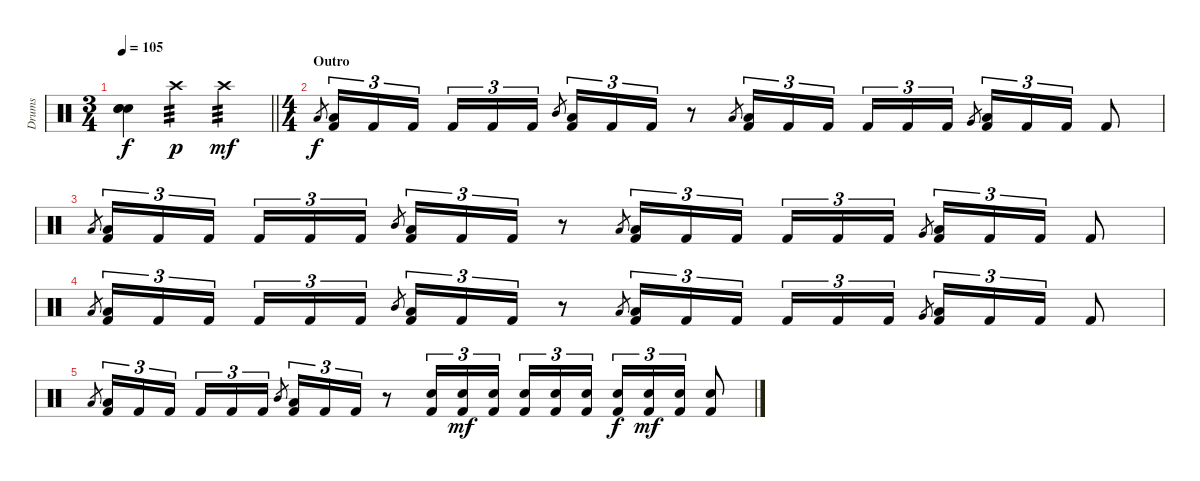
\track ("Drums" "Drums") {instrument percussion}
\staff {score}
\articulation defaults
\ts (3 4)
\tempo 105
\clef neutral
\barLineRight lightlight
\ks c
("Snare (hit)"{t} "Snare (hit)"{t} "Snare (hit)"{t}).4{dy f} "Crash high (hit)".4{tp 3 dy p} "Crash high (hit)".4{tp 3 dy mf} |
\ts (4 4)
\section ("" "Outro")
"Low Tom (hit)".8{gr dy f} ("Low Floor Tom (hit)" "Kick (hit) 2").16{tu (3 2)} "Kick (hit) 2".16{tu (3 2)} "Kick (hit) 2".16{tu (3 2) beam splitsecondary} "Kick (hit) 2".16{tu (3 2)} "Kick (hit) 2".16{tu (3 2)} "Kick (hit) 2".16{tu (3 2)} "Mid Tom (hit)".8{gr} ("Low Floor Tom (hit)" "Kick (hit) 2").16{tu (3 2)} "Kick (hit) 2".16{tu (3 2)} "Kick (hit) 2".16{tu (3 2)} r.8 "Low Tom (hit)".8{gr} ("Low Floor Tom (hit)" "Kick (hit) 2").16{tu (3 2)} "Kick (hit) 2".16{tu (3 2)} "Kick (hit) 2".16{tu (3 2) beam splitsecondary} "Kick (hit) 2".16{tu (3 2)} "Kick (hit) 2".16{tu (3 2)} "Kick (hit) 2".16{tu (3 2)} "Very Low Tom (hit)".8{gr} ("Low Floor Tom (hit)" "Kick (hit) 2").16{tu (3 2)} "Kick (hit) 2".16{tu (3 2)} "Kick (hit) 2".16{tu (3 2)} "Kick (hit) 2".8 |
"Low Tom (hit)".8{gr} ("Low Floor Tom (hit)" "Kick (hit) 2").16{tu (3 2)} "Kick (hit) 2".16{tu (3 2)} "Kick (hit) 2".16{tu (3 2) beam splitsecondary} "Kick (hit) 2".16{tu (3 2)} "Kick (hit) 2".16{tu (3 2)} "Kick (hit) 2".16{tu (3 2)} "Mid Tom (hit)".8{gr} ("Low Floor Tom (hit)" "Kick (hit) 2").16{tu (3 2)} "Kick (hit) 2".16{tu (3 2)} "Kick (hit) 2".16{tu (3 2)} r.8 "Low Tom (hit)".8{gr} ("Low Floor Tom (hit)" "Kick (hit) 2").16{tu (3 2)} "Kick (hit) 2".16{tu (3 2)} "Kick (hit) 2".16{tu (3 2) beam splitsecondary} "Kick (hit) 2".16{tu (3 2)} "Kick (hit) 2".16{tu (3 2)} "Kick (hit) 2".16{tu (3 2)} "Very Low Tom (hit)".8{gr} ("Low Floor Tom (hit)" "Kick (hit) 2").16{tu (3 2)} "Kick (hit) 2".16{tu (3 2)} "Kick (hit) 2".16{tu (3 2)} "Kick (hit) 2".8 |
"Low Tom (hit)".8{gr} ("Low Floor Tom (hit)" "Kick (hit) 2").16{tu (3 2)} "Kick (hit) 2".16{tu (3 2)} "Kick (hit) 2".16{tu (3 2) beam splitsecondary} "Kick (hit) 2".16{tu (3 2)} "Kick (hit) 2".16{tu (3 2)} "Kick (hit) 2".16{tu (3 2)} "Mid Tom (hit)".8{gr} ("Low Floor Tom (hit)" "Kick (hit) 2").16{tu (3 2)} "Kick (hit) 2".16{tu (3 2)} "Kick (hit) 2".16{tu (3 2)} r.8 "Low Tom (hit)".8{gr} ("Low Floor Tom (hit)" "Kick (hit) 2").16{tu (3 2)} "Kick (hit) 2".16{tu (3 2)} "Kick (hit) 2".16{tu (3 2) beam splitsecondary} "Kick (hit) 2".16{tu (3 2)} "Kick (hit) 2".16{tu (3 2)} "Kick (hit) 2".16{tu (3 2)} "Very Low Tom (hit)".8{gr} ("Low Floor Tom (hit)" "Kick (hit) 2").16{tu (3 2)} "Kick (hit) 2".16{tu (3 2)} "Kick (hit) 2".16{tu (3 2)} "Kick (hit) 2".8 |
"Low Tom (hit)".8{gr} ("Low Floor Tom (hit)" "Kick (hit) 2").16{tu (3 2)} "Kick (hit) 2".16{tu (3 2)} "Kick (hit) 2".16{tu (3 2) beam splitsecondary} "Kick (hit) 2".16{tu (3 2)} "Kick (hit) 2".16{tu (3 2)} "Kick (hit) 2".16{tu (3 2)} "Mid Tom (hit)".8{gr} ("Low Floor Tom (hit)" "Kick (hit) 2").16{tu (3 2)} "Kick (hit) 2".16{tu (3 2)} "Kick (hit) 2".16{tu (3 2)} r.8 ("Electric Snare (hit)" "Kick (hit) 2").16{tu (3 2)} ("Electric Snare (hit)" "Kick (hit) 2").16{tu (3 2) dy mf} ("Electric Snare (hit)" "Kick (hit) 2").16{tu (3 2) beam splitsecondary} ("Electric Snare (hit)" "Kick (hit) 2").16{tu (3 2)} ("Electric Snare (hit)" "Kick (hit) 2").16{tu (3 2)} ("Electric Snare (hit)" "Kick (hit) 2").16{tu (3 2)} ("Electric Snare (hit)" "Kick (hit) 2").16{tu (3 2) dy f} ("Electric Snare (hit)" "Kick (hit) 2").16{tu (3 2) dy mf} ("Electric Snare (hit)" "Kick (hit) 2").16{tu (3 2)} ("Electric Snare (hit)" "Kick (hit) 2").8
